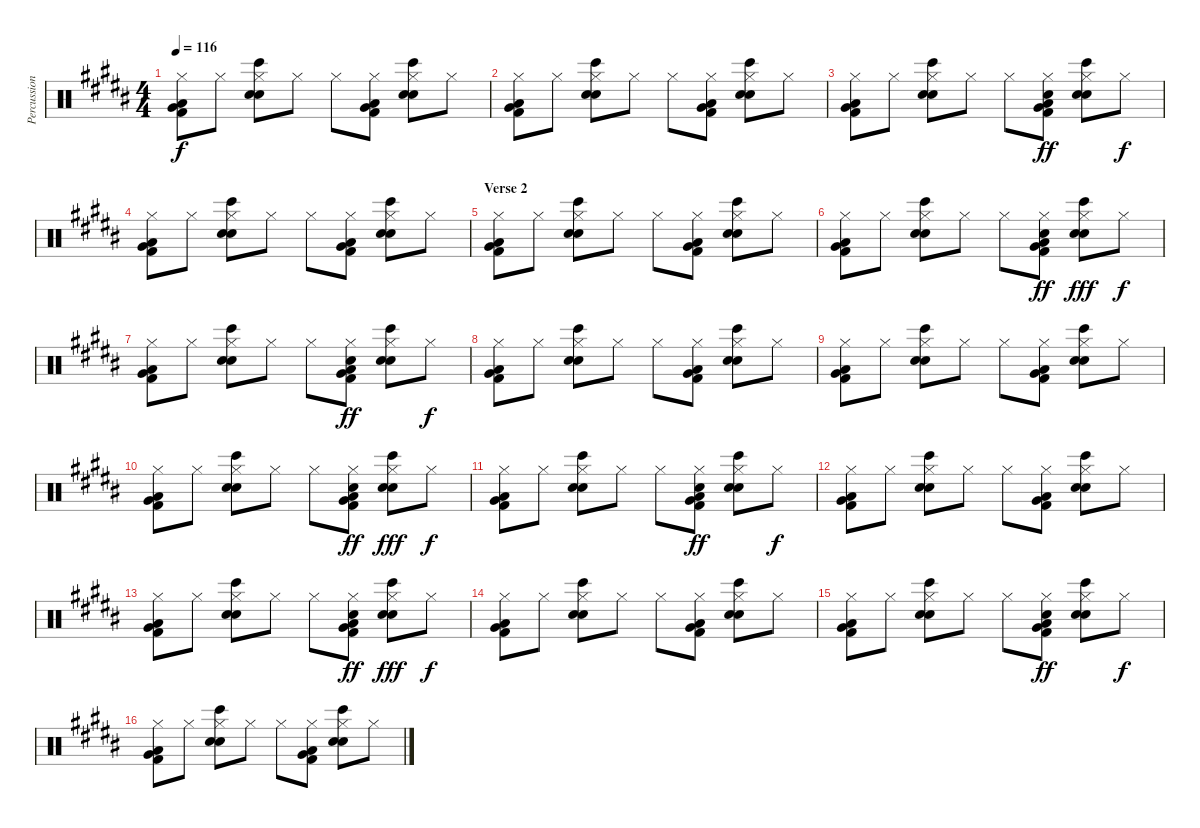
\track ("Percussion" "Percussion") {instrument percussion}
\staff {score}
\articulation defaults
\ts (4 4)
\tempo 116
\clef neutral
\ks b
("Low Tom (hit)" "Very Low Tom (hit)" "Kick (hit) 2" "Hi-Hat (closed)").8{dy f} "Hi-Hat (closed)".8 ("Bongo High (hit)" "Hand Clap (hit)" "Snare (hit) 2" "Hi-Hat (closed)").8 "Hi-Hat (closed)".8 "Hi-Hat (closed)".8 ("Low Tom (hit)" "Very Low Tom (hit)" "Kick (hit) 2" "Hi-Hat (closed)").8 ("Bongo High (hit)" "Hand Clap (hit)" "Snare (hit) 2" "Hi-Hat (closed)").8 "Hi-Hat (closed)".8 |
("Low Tom (hit)" "Very Low Tom (hit)" "Kick (hit) 2" "Hi-Hat (closed)").8 "Hi-Hat (closed)".8 ("Bongo High (hit)" "Hand Clap (hit)" "Snare (hit) 2" "Hi-Hat (closed)").8 "Hi-Hat (closed)".8 "Hi-Hat (closed)".8 ("Low Tom (hit)" "Very Low Tom (hit)" "Kick (hit) 2" "Hi-Hat (closed)").8 ("Bongo High (hit)" "Hand Clap (hit)" "Snare (hit) 2" "Hi-Hat (closed)").8 "Hi-Hat (closed)".8 |
("Low Tom (hit)" "Very Low Tom (hit)" "Kick (hit) 2" "Hi-Hat (closed)").8 "Hi-Hat (closed)".8 ("Bongo High (hit)" "Hand Clap (hit)" "Snare (hit) 2" "Hi-Hat (closed)").8 "Hi-Hat (closed)".8 "Hi-Hat (closed)".8 ("Low Tom (hit)" "Very Low Tom (hit)" "Kick (hit) 2" "Hi-Hat (closed)" "Hand Clap (hit)").8{dy ff} ("Bongo High (hit)" "Hand Clap (hit)" "Snare (hit) 2" "Hi-Hat (closed)").8 "Hi-Hat (closed)".8{dy f} |
("Low Tom (hit)" "Very Low Tom (hit)" "Kick (hit) 2" "Hi-Hat (closed)").8 "Hi-Hat (closed)".8 ("Bongo High (hit)" "Hand Clap (hit)" "Snare (hit) 2" "Hi-Hat (closed)").8 "Hi-Hat (closed)".8 "Hi-Hat (closed)".8 ("Low Tom (hit)" "Very Low Tom (hit)" "Kick (hit) 2" "Hi-Hat (closed)").8 ("Bongo High (hit)" "Hand Clap (hit)" "Snare (hit) 2" "Hi-Hat (closed)").8 "Hi-Hat (closed)".8 |
\section ("" "Verse 2")
("Low Tom (hit)" "Very Low Tom (hit)" "Kick (hit) 2" "Hi-Hat (closed)").8 "Hi-Hat (closed)".8 ("Bongo High (hit)" "Hand Clap (hit)" "Snare (hit) 2" "Hi-Hat (closed)").8 "Hi-Hat (closed)".8 "Hi-Hat (closed)".8 ("Low Tom (hit)" "Very Low Tom (hit)" "Kick (hit) 2" "Hi-Hat (closed)").8 ("Bongo High (hit)" "Hand Clap (hit)" "Snare (hit) 2" "Hi-Hat (closed)").8 "Hi-Hat (closed)".8 |
("Low Tom (hit)" "Very Low Tom (hit)" "Kick (hit) 2" "Hi-Hat (closed)").8 "Hi-Hat (closed)".8 ("Bongo High (hit)" "Hand Clap (hit)" "Snare (hit) 2" "Hi-Hat (closed)").8 "Hi-Hat (closed)".8 "Hi-Hat (closed)".8 ("Low Tom (hit)" "Very Low Tom (hit)" "Kick (hit) 2" "Hi-Hat (closed)" "Hand Clap (hit)").8{dy ff} ("Bongo High (hit)" "Hand Clap (hit)" "Snare (hit) 2" "Hi-Hat (closed)").8{dy fff} "Hi-Hat (closed)".8{dy f} |
("Low Tom (hit)" "Very Low Tom (hit)" "Kick (hit) 2" "Hi-Hat (closed)").8 "Hi-Hat (closed)".8 ("Bongo High (hit)" "Hand Clap (hit)" "Snare (hit) 2" "Hi-Hat (closed)").8 "Hi-Hat (closed)".8 "Hi-Hat (closed)".8 ("Low Tom (hit)" "Very Low Tom (hit)" "Kick (hit) 2" "Hi-Hat (closed)" "Hand Clap (hit)").8{dy ff} ("Bongo High (hit)" "Hand Clap (hit)" "Snare (hit) 2" "Hi-Hat (closed)").8 "Hi-Hat (closed)".8{dy f} |
("Low Tom (hit)" "Very Low Tom (hit)" "Kick (hit) 2" "Hi-Hat (closed)").8 "Hi-Hat (closed)".8 ("Bongo High (hit)" "Hand Clap (hit)" "Snare (hit) 2" "Hi-Hat (closed)").8 "Hi-Hat (closed)".8 "Hi-Hat (closed)".8 ("Low Tom (hit)" "Very Low Tom (hit)" "Kick (hit) 2" "Hi-Hat (closed)").8 ("Bongo High (hit)" "Hand Clap (hit)" "Snare (hit) 2" "Hi-Hat (closed)").8 "Hi-Hat (closed)".8 |
("Low Tom (hit)" "Very Low Tom (hit)" "Kick (hit) 2" "Hi-Hat (closed)").8 "Hi-Hat (closed)".8 ("Bongo High (hit)" "Hand Clap (hit)" "Snare (hit) 2" "Hi-Hat (closed)").8 "Hi-Hat (closed)".8 "Hi-Hat (closed)".8 ("Low Tom (hit)" "Very Low Tom (hit)" "Kick (hit) 2" "Hi-Hat (closed)").8 ("Bongo High (hit)" "Hand Clap (hit)" "Snare (hit) 2" "Hi-Hat (closed)").8 "Hi-Hat (closed)".8 |
("Low Tom (hit)" "Very Low Tom (hit)" "Kick (hit) 2" "Hi-Hat (closed)").8 "Hi-Hat (closed)".8 ("Bongo High (hit)" "Hand Clap (hit)" "Snare (hit) 2" "Hi-Hat (closed)").8 "Hi-Hat (closed)".8 "Hi-Hat (closed)".8 ("Low Tom (hit)" "Very Low Tom (hit)" "Kick (hit) 2" "Hi-Hat (closed)" "Hand Clap (hit)").8{dy ff} ("Bongo High (hit)" "Hand Clap (hit)" "Snare (hit) 2" "Hi-Hat (closed)").8{dy fff} "Hi-Hat (closed)".8{dy f} |
("Low Tom (hit)" "Very Low Tom (hit)" "Kick (hit) 2" "Hi-Hat (closed)").8 "Hi-Hat (closed)".8 ("Bongo High (hit)" "Hand Clap (hit)" "Snare (hit) 2" "Hi-Hat (closed)").8 "Hi-Hat (closed)".8 "Hi-Hat (closed)".8 ("Low Tom (hit)" "Very Low Tom (hit)" "Kick (hit) 2" "Hi-Hat (closed)" "Hand Clap (hit)").8{dy ff} ("Bongo High (hit)" "Hand Clap (hit)" "Snare (hit) 2" "Hi-Hat (closed)").8 "Hi-Hat (closed)".8{dy f} |
("Low Tom (hit)" "Very Low Tom (hit)" "Kick (hit) 2" "Hi-Hat (closed)").8 "Hi-Hat (closed)".8 ("Bongo High (hit)" "Hand Clap (hit)" "Snare (hit) 2" "Hi-Hat (closed)").8 "Hi-Hat (closed)".8 "Hi-Hat (closed)".8 ("Low Tom (hit)" "Very Low Tom (hit)" "Kick (hit) 2" "Hi-Hat (closed)").8 ("Bongo High (hit)" "Hand Clap (hit)" "Snare (hit) 2" "Hi-Hat (closed)").8 "Hi-Hat (closed)".8 |
("Low Tom (hit)" "Very Low Tom (hit)" "Kick (hit) 2" "Hi-Hat (closed)").8 "Hi-Hat (closed)".8 ("Bongo High (hit)" "Hand Clap (hit)" "Snare (hit) 2" "Hi-Hat (closed)").8 "Hi-Hat (closed)".8 "Hi-Hat (closed)".8 ("Low Tom (hit)" "Very Low Tom (hit)" "Kick (hit) 2" "Hi-Hat (closed)" "Hand Clap (hit)").8{dy ff} ("Bongo High (hit)" "Hand Clap (hit)" "Snare (hit) 2" "Hi-Hat (closed)").8{dy fff} "Hi-Hat (closed)".8{dy f} |
("Low Tom (hit)" "Very Low Tom (hit)" "Kick (hit) 2" "Hi-Hat (closed)").8 "Hi-Hat (closed)".8 ("Bongo High (hit)" "Hand Clap (hit)" "Snare (hit) 2" "Hi-Hat (closed)").8 "Hi-Hat (closed)".8 "Hi-Hat (closed)".8 ("Low Tom (hit)" "Very Low Tom (hit)" "Kick (hit) 2" "Hi-Hat (closed)").8 ("Bongo High (hit)" "Hand Clap (hit)" "Snare (hit) 2" "Hi-Hat (closed)").8 "Hi-Hat (closed)".8 |
("Low Tom (hit)" "Very Low Tom (hit)" "Kick (hit) 2" "Hi-Hat (closed)").8 "Hi-Hat (closed)".8 ("Bongo High (hit)" "Hand Clap (hit)" "Snare (hit) 2" "Hi-Hat (closed)").8 "Hi-Hat (closed)".8 "Hi-Hat (closed)".8 ("Low Tom (hit)" "Very Low Tom (hit)" "Kick (hit) 2" "Hi-Hat (closed)" "Hand Clap (hit)").8{dy ff} ("Bongo High (hit)" "Hand Clap (hit)" "Snare (hit) 2" "Hi-Hat (closed)").8 "Hi-Hat (closed)".8{dy f} |
("Low Tom (hit)" "Very Low Tom (hit)" "Kick (hit) 2" "Hi-Hat (closed)").8 "Hi-Hat (closed)".8 ("Bongo High (hit)" "Hand Clap (hit)" "Snare (hit) 2" "Hi-Hat (closed)").8 "Hi-Hat (closed)".8 "Hi-Hat (closed)".8 ("Low Tom (hit)" "Very Low Tom (hit)" "Kick (hit) 2" "Hi-Hat (closed)").8 ("Bongo High (hit)" "Hand Clap (hit)" "Snare (hit) 2" "Hi-Hat (closed)").8 "Hi-Hat (closed)".8
